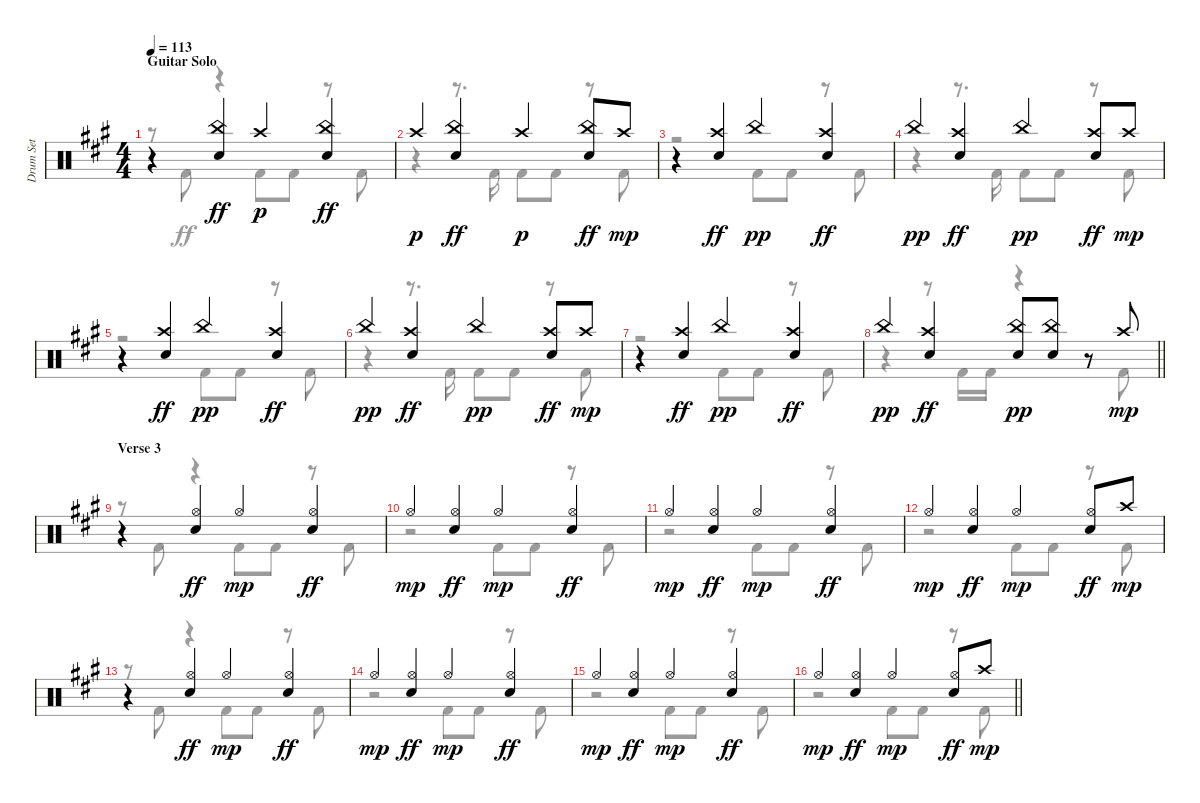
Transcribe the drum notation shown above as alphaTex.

\track ("Drum Set" "Drum Set") {instrument percussion}
\staff {score}
\articulation defaults
\voice
\ts (4 4)
\section ("" "Guitar Solo")
\tempo 113
\clef neutral
\ks f#minor
r.4{dy mp} ("China (hit)" "Electric Snare (hit)").4{dy ff} "Crash high (hit)".4{dy p} ("China (hit)" "Electric Snare (hit)").4{dy ff} |
"Crash high (hit)".4{dy p} ("China (hit)" "Electric Snare (hit)").4{dy ff} "Crash high (hit)".4{dy p} ("China (hit)" "Electric Snare (hit)").8{dy ff} "Crash high (hit)".8{dy mp} |
r.4 ("Crash high (hit)" "Electric Snare (hit)").4{dy ff} "China (hit)".4{dy pp} ("Crash high (hit)" "Electric Snare (hit)").4{dy ff} |
"China (hit)".4{dy pp} ("Crash high (hit)" "Electric Snare (hit)").4{dy ff} "China (hit)".4{dy pp} ("Crash high (hit)" "Electric Snare (hit)").8{dy ff} "Crash high (hit)".8{dy mp} |
r.4 ("Crash high (hit)" "Electric Snare (hit)").4{dy ff} "China (hit)".4{dy pp} ("Crash high (hit)" "Electric Snare (hit)").4{dy ff} |
"China (hit)".4{dy pp} ("Crash high (hit)" "Electric Snare (hit)").4{dy ff} "China (hit)".4{dy pp} ("Crash high (hit)" "Electric Snare (hit)").8{dy ff} "Crash high (hit)".8{dy mp} |
r.4 ("Crash high (hit)" "Electric Snare (hit)").4{dy ff} "China (hit)".4{dy pp} ("Crash high (hit)" "Electric Snare (hit)").4{dy ff} |
\barLineRight lightlight "China (hit)".4{dy pp}
("Crash high (hit)" "Electric Snare (hit)").4{dy ff} ("Electric Snare (hit)" "China (hit)").8{dy pp} ("Electric Snare (hit)" "China (hit)").8 r.8 "Crash high (hit)".8{dy mp} |
\section ("" "Verse 3")
r.4 ("Hi-Hat (open)" "Electric Snare (hit)").4{dy ff} "Hi-Hat (open)".4{dy mp} ("Hi-Hat (open)" "Electric Snare (hit)").4{dy ff} |
"Hi-Hat (open)".4{dy mp} ("Hi-Hat (open)" "Electric Snare (hit)").4{dy ff} "Hi-Hat (open)".4{dy mp} ("Hi-Hat (open)" "Electric Snare (hit)").4{dy ff} |
"Hi-Hat (open)".4{dy mp} ("Hi-Hat (open)" "Electric Snare (hit)").4{dy ff} "Hi-Hat (open)".4{dy mp} ("Hi-Hat (open)" "Electric Snare (hit)").4{dy ff} |
"Hi-Hat (open)".4{dy mp} ("Hi-Hat (open)" "Electric Snare (hit)").4{dy ff} "Hi-Hat (open)".4{dy mp} ("Hi-Hat (open)" "Electric Snare (hit)").8{dy ff} "Crash high (hit)".8{dy mp} |
r.4 ("Hi-Hat (open)" "Electric Snare (hit)").4{dy ff} "Hi-Hat (open)".4{dy mp} ("Hi-Hat (open)" "Electric Snare (hit)").4{dy ff} |
"Hi-Hat (open)".4{dy mp} ("Hi-Hat (open)" "Electric Snare (hit)").4{dy ff} "Hi-Hat (open)".4{dy mp} ("Hi-Hat (open)" "Electric Snare (hit)").4{dy ff} |
"Hi-Hat (open)".4{dy mp} ("Hi-Hat (open)" "Electric Snare (hit)").4{dy ff} "Hi-Hat (open)".4{dy mp} ("Hi-Hat (open)" "Electric Snare (hit)").4{dy ff} |
\barLineRight lightlight "Hi-Hat (open)".4{dy mp}
("Hi-Hat (open)" "Electric Snare (hit)").4{dy ff} "Hi-Hat (open)".4{dy mp} ("Hi-Hat (open)" "Electric Snare (hit)").8{dy ff} "Crash high (hit)".8{dy mp}
\voice
\clef neutral
\ottava regular
\simile none
\ks f#minor
r.8{dy fff} "Kick (hit) 2".8{dy ff} r.4 "Kick (hit) 2".8 "Kick (hit) 2".8 r.8 "Kick (hit) 2".8 |
r.4 r.8{d} "Kick (hit) 2".16 "Kick (hit) 2".8 "Kick (hit) 2".8 r.8 "Kick (hit) 2".8 |
r.2 "Kick (hit) 2".8 "Kick (hit) 2".8 r.8 "Kick (hit) 2".8 |
r.4 r.8{d} "Kick (hit) 2".16 "Kick (hit) 2".8 "Kick (hit) 2".8 r.8 "Kick (hit) 2".8 |
r.2 "Kick (hit) 2".8 "Kick (hit) 2".8 r.8 "Kick (hit) 2".8 |
r.4 r.8{d} "Kick (hit) 2".16 "Kick (hit) 2".8 "Kick (hit) 2".8 r.8 "Kick (hit) 2".8 |
r.2 "Kick (hit) 2".8 "Kick (hit) 2".8 r.8 "Kick (hit) 2".8 |
\barLineRight lightlight
r.4 r.8 "Kick (hit) 2".16 "Kick (hit) 2".16 r.4 r.8 "Kick (hit) 2".8 |
r.8 "Kick (hit) 2".8 r.4 "Kick (hit) 2".8 "Kick (hit) 2".8 r.8 "Kick (hit) 2".8 |
r.2 "Kick (hit) 2".8 "Kick (hit) 2".8 r.8 "Kick (hit) 2".8 |
r.2 "Kick (hit) 2".8 "Kick (hit) 2".8 r.8 "Kick (hit) 2".8 |
r.2 "Kick (hit) 2".8 "Kick (hit) 2".8 r.8 "Kick (hit) 2".8 |
r.8 "Kick (hit) 2".8 r.4 "Kick (hit) 2".8 "Kick (hit) 2".8 r.8 "Kick (hit) 2".8 |
r.2 "Kick (hit) 2".8 "Kick (hit) 2".8 r.8 "Kick (hit) 2".8 |
r.2 "Kick (hit) 2".8 "Kick (hit) 2".8 r.8 "Kick (hit) 2".8 |
\barLineRight lightlight
r.2 "Kick (hit) 2".8 "Kick (hit) 2".8 r.8 "Kick (hit) 2".8
